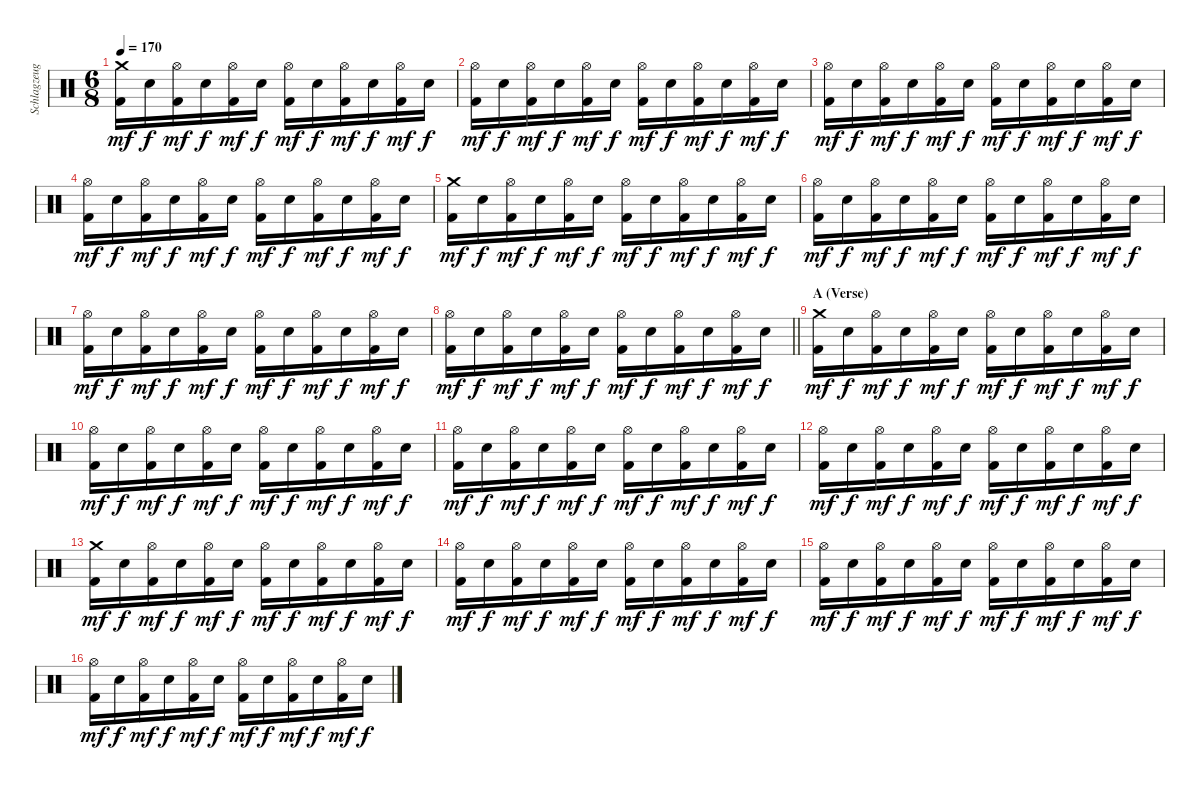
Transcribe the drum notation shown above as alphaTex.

\track ("Schlagzeug" "Schlagzeug") {instrument percussion}
\staff {score}
\articulation defaults
\ts (6 8)
\tempo 170
\clef neutral
\ks c
("Crash medium (hit)" "Kick (hit) 2").16{dy mf} "Electric Snare (hit)".16{dy f} ("Hi-Hat (open)" "Kick (hit) 2").16{dy mf} "Electric Snare (hit)".16{dy f} ("Hi-Hat (open)" "Kick (hit) 2").16{dy mf} "Electric Snare (hit)".16{dy f} ("Hi-Hat (open)" "Kick (hit) 2").16{dy mf} "Electric Snare (hit)".16{dy f} ("Hi-Hat (open)" "Kick (hit) 2").16{dy mf} "Electric Snare (hit)".16{dy f} ("Hi-Hat (open)" "Kick (hit) 2").16{dy mf} "Electric Snare (hit)".16{dy f} |
("Hi-Hat (open)" "Kick (hit) 2").16{dy mf} "Electric Snare (hit)".16{dy f} ("Hi-Hat (open)" "Kick (hit) 2").16{dy mf} "Electric Snare (hit)".16{dy f} ("Hi-Hat (open)" "Kick (hit) 2").16{dy mf} "Electric Snare (hit)".16{dy f} ("Hi-Hat (open)" "Kick (hit) 2").16{dy mf} "Electric Snare (hit)".16{dy f} ("Hi-Hat (open)" "Kick (hit) 2").16{dy mf} "Electric Snare (hit)".16{dy f} ("Hi-Hat (open)" "Kick (hit) 2").16{dy mf} "Electric Snare (hit)".16{dy f} |
("Hi-Hat (open)" "Kick (hit) 2").16{dy mf} "Electric Snare (hit)".16{dy f} ("Hi-Hat (open)" "Kick (hit) 2").16{dy mf} "Electric Snare (hit)".16{dy f} ("Hi-Hat (open)" "Kick (hit) 2").16{dy mf} "Electric Snare (hit)".16{dy f} ("Hi-Hat (open)" "Kick (hit) 2").16{dy mf} "Electric Snare (hit)".16{dy f} ("Hi-Hat (open)" "Kick (hit) 2").16{dy mf} "Electric Snare (hit)".16{dy f} ("Hi-Hat (open)" "Kick (hit) 2").16{dy mf} "Electric Snare (hit)".16{dy f} |
("Hi-Hat (open)" "Kick (hit) 2").16{dy mf} "Electric Snare (hit)".16{dy f} ("Hi-Hat (open)" "Kick (hit) 2").16{dy mf} "Electric Snare (hit)".16{dy f} ("Hi-Hat (open)" "Kick (hit) 2").16{dy mf} "Electric Snare (hit)".16{dy f} ("Hi-Hat (open)" "Kick (hit) 2").16{dy mf} "Electric Snare (hit)".16{dy f} ("Hi-Hat (open)" "Kick (hit) 2").16{dy mf} "Electric Snare (hit)".16{dy f} ("Hi-Hat (open)" "Kick (hit) 2").16{dy mf} "Electric Snare (hit)".16{dy f} |
("Crash medium (hit)" "Kick (hit) 2").16{dy mf} "Electric Snare (hit)".16{dy f} ("Hi-Hat (open)" "Kick (hit) 2").16{dy mf} "Electric Snare (hit)".16{dy f} ("Hi-Hat (open)" "Kick (hit) 2").16{dy mf} "Electric Snare (hit)".16{dy f} ("Hi-Hat (open)" "Kick (hit) 2").16{dy mf} "Electric Snare (hit)".16{dy f} ("Hi-Hat (open)" "Kick (hit) 2").16{dy mf} "Electric Snare (hit)".16{dy f} ("Hi-Hat (open)" "Kick (hit) 2").16{dy mf} "Electric Snare (hit)".16{dy f} |
("Hi-Hat (open)" "Kick (hit) 2").16{dy mf} "Electric Snare (hit)".16{dy f} ("Hi-Hat (open)" "Kick (hit) 2").16{dy mf} "Electric Snare (hit)".16{dy f} ("Hi-Hat (open)" "Kick (hit) 2").16{dy mf} "Electric Snare (hit)".16{dy f} ("Hi-Hat (open)" "Kick (hit) 2").16{dy mf} "Electric Snare (hit)".16{dy f} ("Hi-Hat (open)" "Kick (hit) 2").16{dy mf} "Electric Snare (hit)".16{dy f} ("Hi-Hat (open)" "Kick (hit) 2").16{dy mf} "Electric Snare (hit)".16{dy f} |
("Hi-Hat (open)" "Kick (hit) 2").16{dy mf} "Electric Snare (hit)".16{dy f} ("Hi-Hat (open)" "Kick (hit) 2").16{dy mf} "Electric Snare (hit)".16{dy f} ("Hi-Hat (open)" "Kick (hit) 2").16{dy mf} "Electric Snare (hit)".16{dy f} ("Hi-Hat (open)" "Kick (hit) 2").16{dy mf} "Electric Snare (hit)".16{dy f} ("Hi-Hat (open)" "Kick (hit) 2").16{dy mf} "Electric Snare (hit)".16{dy f} ("Hi-Hat (open)" "Kick (hit) 2").16{dy mf} "Electric Snare (hit)".16{dy f} |
\barLineRight lightlight
("Hi-Hat (open)" "Kick (hit) 2").16{dy mf} "Electric Snare (hit)".16{dy f} ("Hi-Hat (open)" "Kick (hit) 2").16{dy mf} "Electric Snare (hit)".16{dy f} ("Hi-Hat (open)" "Kick (hit) 2").16{dy mf} "Electric Snare (hit)".16{dy f} ("Hi-Hat (open)" "Kick (hit) 2").16{dy mf} "Electric Snare (hit)".16{dy f} ("Hi-Hat (open)" "Kick (hit) 2").16{dy mf} "Electric Snare (hit)".16{dy f} ("Hi-Hat (open)" "Kick (hit) 2").16{dy mf} "Electric Snare (hit)".16{dy f} |
\section ("" "A (Verse)")
("Crash medium (hit)" "Kick (hit) 2").16{dy mf} "Electric Snare (hit)".16{dy f} ("Hi-Hat (open)" "Kick (hit) 2").16{dy mf} "Electric Snare (hit)".16{dy f} ("Hi-Hat (open)" "Kick (hit) 2").16{dy mf} "Electric Snare (hit)".16{dy f} ("Hi-Hat (open)" "Kick (hit) 2").16{dy mf} "Electric Snare (hit)".16{dy f} ("Hi-Hat (open)" "Kick (hit) 2").16{dy mf} "Electric Snare (hit)".16{dy f} ("Hi-Hat (open)" "Kick (hit) 2").16{dy mf} "Electric Snare (hit)".16{dy f} |
("Hi-Hat (open)" "Kick (hit) 2").16{dy mf} "Electric Snare (hit)".16{dy f} ("Hi-Hat (open)" "Kick (hit) 2").16{dy mf} "Electric Snare (hit)".16{dy f} ("Hi-Hat (open)" "Kick (hit) 2").16{dy mf} "Electric Snare (hit)".16{dy f} ("Hi-Hat (open)" "Kick (hit) 2").16{dy mf} "Electric Snare (hit)".16{dy f} ("Hi-Hat (open)" "Kick (hit) 2").16{dy mf} "Electric Snare (hit)".16{dy f} ("Hi-Hat (open)" "Kick (hit) 2").16{dy mf} "Electric Snare (hit)".16{dy f} |
("Hi-Hat (open)" "Kick (hit) 2").16{dy mf} "Electric Snare (hit)".16{dy f} ("Hi-Hat (open)" "Kick (hit) 2").16{dy mf} "Electric Snare (hit)".16{dy f} ("Hi-Hat (open)" "Kick (hit) 2").16{dy mf} "Electric Snare (hit)".16{dy f} ("Hi-Hat (open)" "Kick (hit) 2").16{dy mf} "Electric Snare (hit)".16{dy f} ("Hi-Hat (open)" "Kick (hit) 2").16{dy mf} "Electric Snare (hit)".16{dy f} ("Hi-Hat (open)" "Kick (hit) 2").16{dy mf} "Electric Snare (hit)".16{dy f} |
("Hi-Hat (open)" "Kick (hit) 2").16{dy mf} "Electric Snare (hit)".16{dy f} ("Hi-Hat (open)" "Kick (hit) 2").16{dy mf} "Electric Snare (hit)".16{dy f} ("Hi-Hat (open)" "Kick (hit) 2").16{dy mf} "Electric Snare (hit)".16{dy f} ("Hi-Hat (open)" "Kick (hit) 2").16{dy mf} "Electric Snare (hit)".16{dy f} ("Hi-Hat (open)" "Kick (hit) 2").16{dy mf} "Electric Snare (hit)".16{dy f} ("Hi-Hat (open)" "Kick (hit) 2").16{dy mf} "Electric Snare (hit)".16{dy f} |
("Crash medium (hit)" "Kick (hit) 2").16{dy mf} "Electric Snare (hit)".16{dy f} ("Hi-Hat (open)" "Kick (hit) 2").16{dy mf} "Electric Snare (hit)".16{dy f} ("Hi-Hat (open)" "Kick (hit) 2").16{dy mf} "Electric Snare (hit)".16{dy f} ("Hi-Hat (open)" "Kick (hit) 2").16{dy mf} "Electric Snare (hit)".16{dy f} ("Hi-Hat (open)" "Kick (hit) 2").16{dy mf} "Electric Snare (hit)".16{dy f} ("Hi-Hat (open)" "Kick (hit) 2").16{dy mf} "Electric Snare (hit)".16{dy f} |
("Hi-Hat (open)" "Kick (hit) 2").16{dy mf} "Electric Snare (hit)".16{dy f} ("Hi-Hat (open)" "Kick (hit) 2").16{dy mf} "Electric Snare (hit)".16{dy f} ("Hi-Hat (open)" "Kick (hit) 2").16{dy mf} "Electric Snare (hit)".16{dy f} ("Hi-Hat (open)" "Kick (hit) 2").16{dy mf} "Electric Snare (hit)".16{dy f} ("Hi-Hat (open)" "Kick (hit) 2").16{dy mf} "Electric Snare (hit)".16{dy f} ("Hi-Hat (open)" "Kick (hit) 2").16{dy mf} "Electric Snare (hit)".16{dy f} |
("Hi-Hat (open)" "Kick (hit) 2").16{dy mf} "Electric Snare (hit)".16{dy f} ("Hi-Hat (open)" "Kick (hit) 2").16{dy mf} "Electric Snare (hit)".16{dy f} ("Hi-Hat (open)" "Kick (hit) 2").16{dy mf} "Electric Snare (hit)".16{dy f} ("Hi-Hat (open)" "Kick (hit) 2").16{dy mf} "Electric Snare (hit)".16{dy f} ("Hi-Hat (open)" "Kick (hit) 2").16{dy mf} "Electric Snare (hit)".16{dy f} ("Hi-Hat (open)" "Kick (hit) 2").16{dy mf} "Electric Snare (hit)".16{dy f} |
("Hi-Hat (open)" "Kick (hit) 2").16{dy mf} "Electric Snare (hit)".16{dy f} ("Hi-Hat (open)" "Kick (hit) 2").16{dy mf} "Electric Snare (hit)".16{dy f} ("Hi-Hat (open)" "Kick (hit) 2").16{dy mf} "Electric Snare (hit)".16{dy f} ("Hi-Hat (open)" "Kick (hit) 2").16{dy mf} "Electric Snare (hit)".16{dy f} ("Hi-Hat (open)" "Kick (hit) 2").16{dy mf} "Electric Snare (hit)".16{dy f} ("Hi-Hat (open)" "Kick (hit) 2").16{dy mf} "Electric Snare (hit)".16{dy f}
